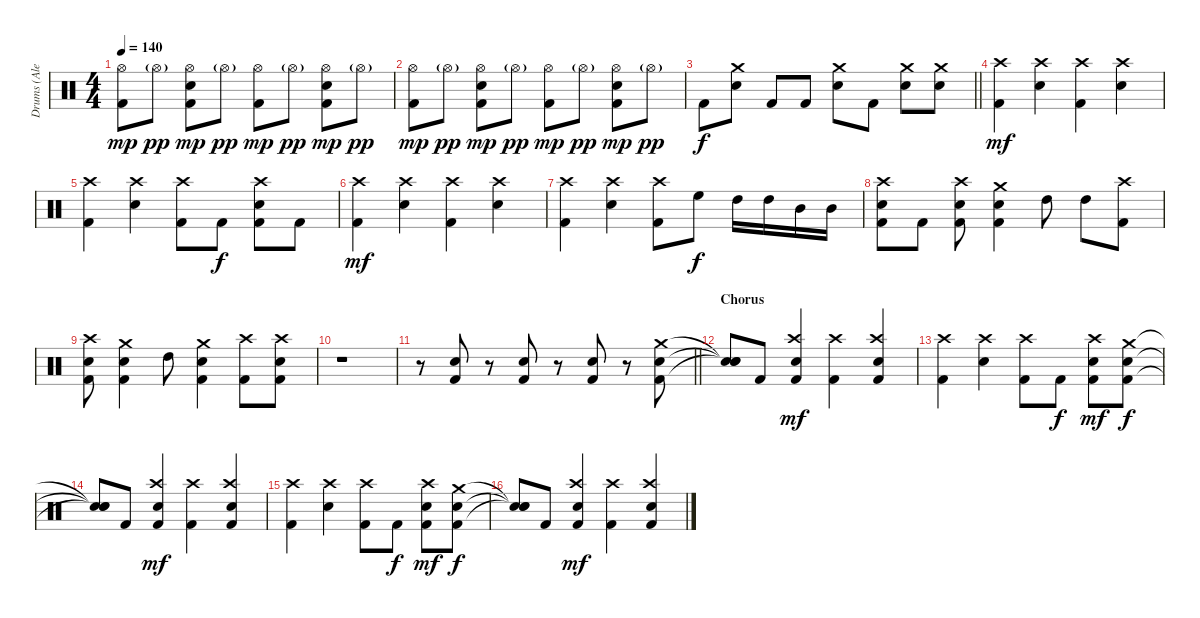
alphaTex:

\track ("Drums (Alex Van Halen)" "Drums (Ale") {instrument percussion}
\staff {score}
\articulation defaults
\ts (4 4)
\tempo 140
\clef neutral
\ks c
("Kick (hit) 2" "Hi-Hat (open)").8{dy mp} "Hi-Hat (open)"{g}.8{dy pp} ("Snare (hit) 2" "Kick (hit) 2" "Hi-Hat (open)").8{dy mp} "Hi-Hat (open)"{g}.8{dy pp} ("Kick (hit) 2" "Hi-Hat (open)").8{dy mp} "Hi-Hat (open)"{g}.8{dy pp} ("Snare (hit) 2" "Kick (hit) 2" "Hi-Hat (open)").8{dy mp} "Hi-Hat (open)"{g}.8{dy pp} |
("Kick (hit) 2" "Hi-Hat (open)").8{dy mp} "Hi-Hat (open)"{g}.8{dy pp} ("Snare (hit) 2" "Kick (hit) 2" "Hi-Hat (open)").8{dy mp} "Hi-Hat (open)"{g}.8{dy pp} ("Kick (hit) 2" "Hi-Hat (open)").8{dy mp} "Hi-Hat (open)"{g}.8{dy pp} ("Snare (hit) 2" "Kick (hit) 2" "Hi-Hat (open)").8{dy mp} "Hi-Hat (open)"{g}.8{dy pp} |
\barLineRight lightlight "Kick (hit) 2".8{dy f}
("Crash medium (hit)" "Snare (hit) 2").8 "Kick (hit) 2".8 "Kick (hit) 2".8 ("Crash medium (hit)" "Snare (hit) 2").8 "Kick (hit) 2".8 ("Crash medium (hit)" "Snare (hit) 2").8 ("Crash medium (hit)" "Snare (hit) 2").8 |
("Crash high (hit)" "Kick (hit) 2").4{dy mf} ("Crash high (hit)" "Snare (hit) 2").4 ("Crash high (hit)" "Kick (hit) 2").4 ("Crash high (hit)" "Snare (hit) 2").4 |
("Crash high (hit)" "Kick (hit) 2").4 ("Crash high (hit)" "Snare (hit) 2").4 ("Crash high (hit)" "Kick (hit) 2").8 "Kick (hit) 2".8{dy f} ("Crash high (hit)" "Snare (hit) 2" "Kick (hit) 2").8 "Kick (hit) 2".8 |
("Crash high (hit)" "Kick (hit) 2").4{dy mf} ("Crash high (hit)" "Snare (hit) 2").4 ("Crash high (hit)" "Kick (hit) 2").4 ("Crash high (hit)" "Snare (hit) 2").4 |
("Crash high (hit)" "Kick (hit) 2").4 ("Crash high (hit)" "Snare (hit) 2").4 ("Crash high (hit)" "Kick (hit) 2").8 "High Floor Tom (hit)".8{dy f} "High Tom (hit)".16 "High Tom (hit)".16 "Mid Tom (hit)".16 "Mid Tom (hit)".16 |
("Crash high (hit)" "Snare (hit) 2" "Kick (hit) 2").8 "Kick (hit) 2".8 ("Crash high (hit)" "Snare (hit) 2" "Kick (hit) 2").8 ("Crash medium (hit)" "Snare (hit) 2" "Kick (hit) 2").4 "High Tom (hit)".8 "High Tom (hit)".8 ("Crash high (hit)" "Kick (hit) 2").8 |
("Crash high (hit)" "Snare (hit) 2" "Kick (hit) 2").8 ("Crash medium (hit)" "Snare (hit) 2" "Kick (hit) 2").4 "High Tom (hit)".8 ("Crash medium (hit)" "Snare (hit) 2" "Kick (hit) 2").4 ("Crash high (hit)" "Kick (hit) 2").8 ("Crash high (hit)" "Snare (hit) 2" "Kick (hit) 2").8 |
r.1 |
\barLineRight lightlight
r.8 ("Snare (hit) 2" "Kick (hit) 2").8 r.8 ("Snare (hit) 2" "Kick (hit) 2").8 r.8 ("Snare (hit) 2" "Kick (hit) 2").8 r.8 ("Crash medium (hit)" "Snare (hit) 2" "Kick (hit) 2").8 |
\section ("" "Chorus")
("Snare (hit)"{t} "Snare (hit)"{t} "Snare (hit)"{t}).8 "Kick (hit) 2".8 ("Crash high (hit)" "Electric Snare (hit)" "Kick (hit) 2").4{dy mf} ("Crash high (hit)" "Kick (hit) 2").4 ("Crash high (hit)" "Electric Snare (hit)" "Kick (hit) 2").4 |
("Crash high (hit)" "Kick (hit) 2").4 ("Crash high (hit)" "Electric Snare (hit)").4 ("Crash high (hit)" "Kick (hit) 2").8 "Kick (hit) 2".8{dy f} ("Crash high (hit)" "Snare (hit) 2" "Kick (hit) 2").8{dy mf} ("Crash medium (hit)" "Electric Snare (hit)" "Kick (hit) 2").8{dy f} |
("Snare (hit)"{t} "Snare (hit)"{t} "Snare (hit)"{t}).8 "Kick (hit) 2".8 ("Crash high (hit)" "Electric Snare (hit)" "Kick (hit) 2").4{dy mf} ("Crash high (hit)" "Kick (hit) 2").4 ("Crash high (hit)" "Electric Snare (hit)" "Kick (hit) 2").4 |
("Crash high (hit)" "Kick (hit) 2").4 ("Crash high (hit)" "Electric Snare (hit)").4 ("Crash high (hit)" "Kick (hit) 2").8 "Kick (hit) 2".8{dy f} ("Crash high (hit)" "Snare (hit) 2" "Kick (hit) 2").8{dy mf} ("Crash medium (hit)" "Electric Snare (hit)" "Kick (hit) 2").8{dy f} |
("Snare (hit)"{t} "Snare (hit)"{t} "Snare (hit)"{t}).8 "Kick (hit) 2".8 ("Crash high (hit)" "Electric Snare (hit)" "Kick (hit) 2").4{dy mf} ("Crash high (hit)" "Kick (hit) 2").4 ("Crash high (hit)" "Electric Snare (hit)" "Kick (hit) 2").4
